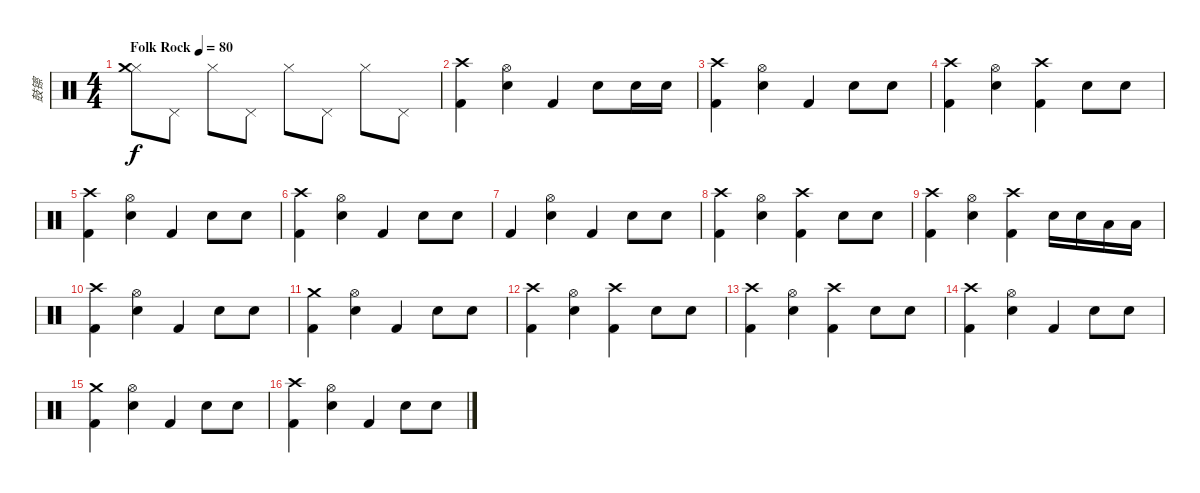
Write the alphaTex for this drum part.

\track ("鼓镲" "鼓镲") {instrument percussion}
\staff {score}
\articulation defaults
\ts (4 4)
\tempo (80 "Folk Rock")
\clef neutral
\ks c
("Hi-Hat (closed)" "Crash medium (hit)").8{dy f} "Pedal Hi-Hat (hit)".8 "Hi-Hat (closed)".8 "Pedal Hi-Hat (hit)".8 "Hi-Hat (closed)".8 "Pedal Hi-Hat (hit)".8 "Hi-Hat (closed)".8 "Pedal Hi-Hat (hit)".8 |
("Crash high (hit)" "Kick (hit) 2").4 ("Hi-Hat (open)" "Electric Snare (hit)").4 "Kick (hit) 2".4 "Electric Snare (hit)".8 "Electric Snare (hit)".16 "Electric Snare (hit)".16 |
("Crash high (hit)" "Kick (hit) 2").4 ("Hi-Hat (open)" "Electric Snare (hit)").4 "Kick (hit) 2".4 "Electric Snare (hit)".8 "Electric Snare (hit)".8 |
("Crash high (hit)" "Kick (hit) 2").4 ("Hi-Hat (open)" "Electric Snare (hit)").4 ("Crash high (hit)" "Kick (hit) 2").4 "Electric Snare (hit)".8 "Electric Snare (hit)".8 |
("Crash high (hit)" "Kick (hit) 2").4 ("Hi-Hat (open)" "Electric Snare (hit)").4 "Kick (hit) 2".4 "Electric Snare (hit)".8 "Electric Snare (hit)".8 |
("Crash high (hit)" "Kick (hit) 2").4 ("Hi-Hat (open)" "Electric Snare (hit)").4 "Kick (hit) 2".4 "Electric Snare (hit)".8 "Electric Snare (hit)".8 |
"Kick (hit) 2".4 ("Hi-Hat (open)" "Electric Snare (hit)").4 "Kick (hit) 2".4 "Electric Snare (hit)".8 "Electric Snare (hit)".8 |
("Crash high (hit)" "Kick (hit) 2").4 ("Hi-Hat (open)" "Electric Snare (hit)").4 ("Crash high (hit)" "Kick (hit) 2").4 "Electric Snare (hit)".8 "Electric Snare (hit)".8 |
("Crash high (hit)" "Kick (hit) 2").4 ("Hi-Hat (open)" "Electric Snare (hit)").4 ("Crash high (hit)" "Kick (hit) 2").4 "Electric Snare (hit)".16 "Electric Snare (hit)".16 "Low Tom (hit)".16 "Low Tom (hit)".16 |
("Crash high (hit)" "Kick (hit) 2").4 ("Hi-Hat (open)" "Electric Snare (hit)").4 "Kick (hit) 2".4 "Electric Snare (hit)".8 "Electric Snare (hit)".8 |
("Crash medium (hit)" "Kick (hit) 2").4 ("Hi-Hat (open)" "Electric Snare (hit)").4 "Kick (hit) 2".4 "Electric Snare (hit)".8 "Electric Snare (hit)".8 |
("Crash high (hit)" "Kick (hit) 2").4 ("Hi-Hat (open)" "Electric Snare (hit)").4 ("Crash high (hit)" "Kick (hit) 2").4 "Electric Snare (hit)".8 "Electric Snare (hit)".8 |
("Crash high (hit)" "Kick (hit) 2").4 ("Hi-Hat (open)" "Electric Snare (hit)").4 ("Crash high (hit)" "Kick (hit) 2").4 "Electric Snare (hit)".8 "Electric Snare (hit)".8 |
("Crash high (hit)" "Kick (hit) 2").4 ("Hi-Hat (open)" "Electric Snare (hit)").4 "Kick (hit) 2".4 "Electric Snare (hit)".8 "Electric Snare (hit)".8 |
("Crash medium (hit)" "Kick (hit) 2").4 ("Hi-Hat (open)" "Electric Snare (hit)").4 "Kick (hit) 2".4 "Electric Snare (hit)".8 "Electric Snare (hit)".8 |
("Crash high (hit)" "Kick (hit) 2").4 ("Hi-Hat (open)" "Electric Snare (hit)").4 "Kick (hit) 2".4 "Electric Snare (hit)".8 "Electric Snare (hit)".8
